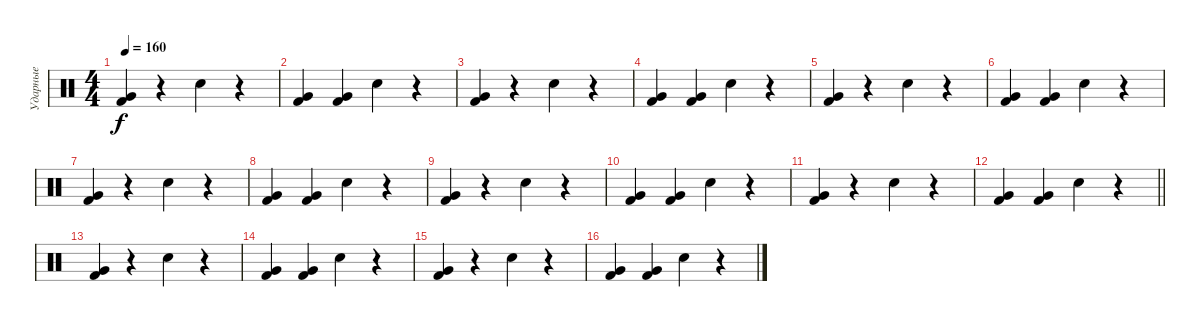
\track ("Ударные" "Ударные") {instrument percussion}
\staff {score}
\articulation defaults
\ts (4 4)
\tempo 160
\clef neutral
\ks c
("Very Low Tom (hit)" "Kick (hit) 2").4{dy f} r.4 "Snare (hit) 2".4 r.4 |
("Very Low Tom (hit)" "Kick (hit) 2").4 ("Very Low Tom (hit)" "Kick (hit) 2").4 "Snare (hit) 2".4 r.4 |
("Very Low Tom (hit)" "Kick (hit) 2").4 r.4 "Snare (hit) 2".4 r.4 |
("Very Low Tom (hit)" "Kick (hit) 2").4 ("Very Low Tom (hit)" "Kick (hit) 2").4 "Snare (hit) 2".4 r.4 |
("Very Low Tom (hit)" "Kick (hit) 2").4 r.4 "Snare (hit) 2".4 r.4 |
("Very Low Tom (hit)" "Kick (hit) 2").4 ("Very Low Tom (hit)" "Kick (hit) 2").4 "Snare (hit) 2".4 r.4 |
("Very Low Tom (hit)" "Kick (hit) 2").4 r.4 "Snare (hit) 2".4 r.4 |
("Very Low Tom (hit)" "Kick (hit) 2").4 ("Very Low Tom (hit)" "Kick (hit) 2").4 "Snare (hit) 2".4 r.4 |
("Very Low Tom (hit)" "Kick (hit) 2").4 r.4 "Snare (hit) 2".4 r.4 |
("Very Low Tom (hit)" "Kick (hit) 2").4 ("Very Low Tom (hit)" "Kick (hit) 2").4 "Snare (hit) 2".4 r.4 |
("Very Low Tom (hit)" "Kick (hit) 2").4 r.4 "Snare (hit) 2".4 r.4 |
\barLineRight lightlight
("Very Low Tom (hit)" "Kick (hit) 2").4 ("Very Low Tom (hit)" "Kick (hit) 2").4 "Snare (hit) 2".4 r.4 |
("Very Low Tom (hit)" "Kick (hit) 2").4 r.4 "Snare (hit) 2".4 r.4 |
("Very Low Tom (hit)" "Kick (hit) 2").4 ("Very Low Tom (hit)" "Kick (hit) 2").4 "Snare (hit) 2".4 r.4 |
("Very Low Tom (hit)" "Kick (hit) 2").4 r.4 "Snare (hit) 2".4 r.4 |
("Very Low Tom (hit)" "Kick (hit) 2").4 ("Very Low Tom (hit)" "Kick (hit) 2").4 "Snare (hit) 2".4 r.4
